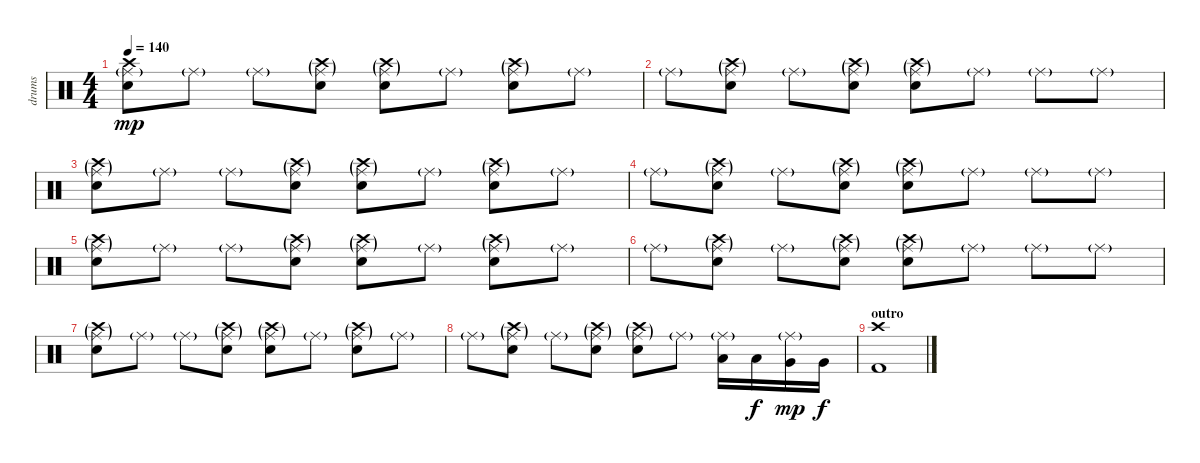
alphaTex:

\track ("drums" "drums") {instrument percussion}
\staff {score}
\articulation defaults
\ts (4 4)
\tempo 140
\clef neutral
\ks c
("Electric Snare (hit)" "Ride (middle)"{g} "Crash high (hit)").8{dy mp} "Ride (middle)"{g}.8 "Ride (middle)"{g}.8 ("Electric Snare (hit)" "Ride (middle)"{g} "Crash high (hit)"{g}).8 ("Electric Snare (hit)" "Ride (middle)"{g} "Crash high (hit)"{g}).8 "Ride (middle)"{g}.8 ("Electric Snare (hit)" "Ride (middle)"{g} "Crash high (hit)"{g}).8 "Ride (middle)"{g}.8 |
"Ride (middle)"{g}.8 ("Electric Snare (hit)" "Ride (middle)"{g} "Crash high (hit)"{g}).8 "Ride (middle)"{g}.8 ("Electric Snare (hit)" "Ride (middle)"{g} "Crash high (hit)"{g}).8 ("Electric Snare (hit)" "Ride (middle)"{g} "Crash high (hit)"{g}).8 "Ride (middle)"{g}.8 "Ride (middle)"{g}.8 "Ride (middle)"{g}.8 |
("Electric Snare (hit)" "Ride (middle)"{g} "Crash high (hit)"{g}).8 "Ride (middle)"{g}.8 "Ride (middle)"{g}.8 ("Electric Snare (hit)" "Ride (middle)"{g} "Crash high (hit)"{g}).8 ("Electric Snare (hit)" "Ride (middle)"{g} "Crash high (hit)"{g}).8 "Ride (middle)"{g}.8 ("Electric Snare (hit)" "Ride (middle)"{g} "Crash high (hit)"{g}).8 "Ride (middle)"{g}.8 |
"Ride (middle)"{g}.8 ("Electric Snare (hit)" "Ride (middle)"{g} "Crash high (hit)"{g}).8 "Ride (middle)"{g}.8 ("Electric Snare (hit)" "Ride (middle)"{g} "Crash high (hit)"{g}).8 ("Electric Snare (hit)" "Ride (middle)"{g} "Crash high (hit)"{g}).8 "Ride (middle)"{g}.8 "Ride (middle)"{g}.8 "Ride (middle)"{g}.8 |
("Electric Snare (hit)" "Ride (middle)"{g} "Crash high (hit)"{g}).8 "Ride (middle)"{g}.8 "Ride (middle)"{g}.8 ("Electric Snare (hit)" "Ride (middle)"{g} "Crash high (hit)"{g}).8 ("Electric Snare (hit)" "Ride (middle)"{g} "Crash high (hit)"{g}).8 "Ride (middle)"{g}.8 ("Electric Snare (hit)" "Ride (middle)"{g} "Crash high (hit)"{g}).8 "Ride (middle)"{g}.8 |
"Ride (middle)"{g}.8 ("Electric Snare (hit)" "Ride (middle)"{g} "Crash high (hit)"{g}).8 "Ride (middle)"{g}.8 ("Electric Snare (hit)" "Ride (middle)"{g} "Crash high (hit)"{g}).8 ("Electric Snare (hit)" "Ride (middle)"{g} "Crash high (hit)"{g}).8 "Ride (middle)"{g}.8 "Ride (middle)"{g}.8 "Ride (middle)"{g}.8 |
("Electric Snare (hit)" "Ride (middle)"{g} "Crash high (hit)"{g}).8 "Ride (middle)"{g}.8 "Ride (middle)"{g}.8 ("Electric Snare (hit)" "Ride (middle)"{g} "Crash high (hit)"{g}).8 ("Electric Snare (hit)" "Ride (middle)"{g} "Crash high (hit)"{g}).8 "Ride (middle)"{g}.8 ("Electric Snare (hit)" "Ride (middle)"{g} "Crash high (hit)"{g}).8 "Ride (middle)"{g}.8 |
"Ride (middle)"{g}.8 ("Electric Snare (hit)" "Ride (middle)"{g} "Crash high (hit)"{g}).8 "Ride (middle)"{g}.8 ("Electric Snare (hit)" "Ride (middle)"{g} "Crash high (hit)"{g}).8 ("Electric Snare (hit)" "Ride (middle)"{g} "Crash high (hit)"{g}).8 "Ride (middle)"{g}.8 ("Low Tom (hit)" "Ride (middle)"{g}).16 "Low Tom (hit)".16{dy f} ("Very Low Tom (hit)" "Ride (middle)"{g}).16{dy mp} "Very Low Tom (hit)".16{dy f} |
\section ("" "outro")
("Kick (hit) 2" "Crash high (hit)").1
